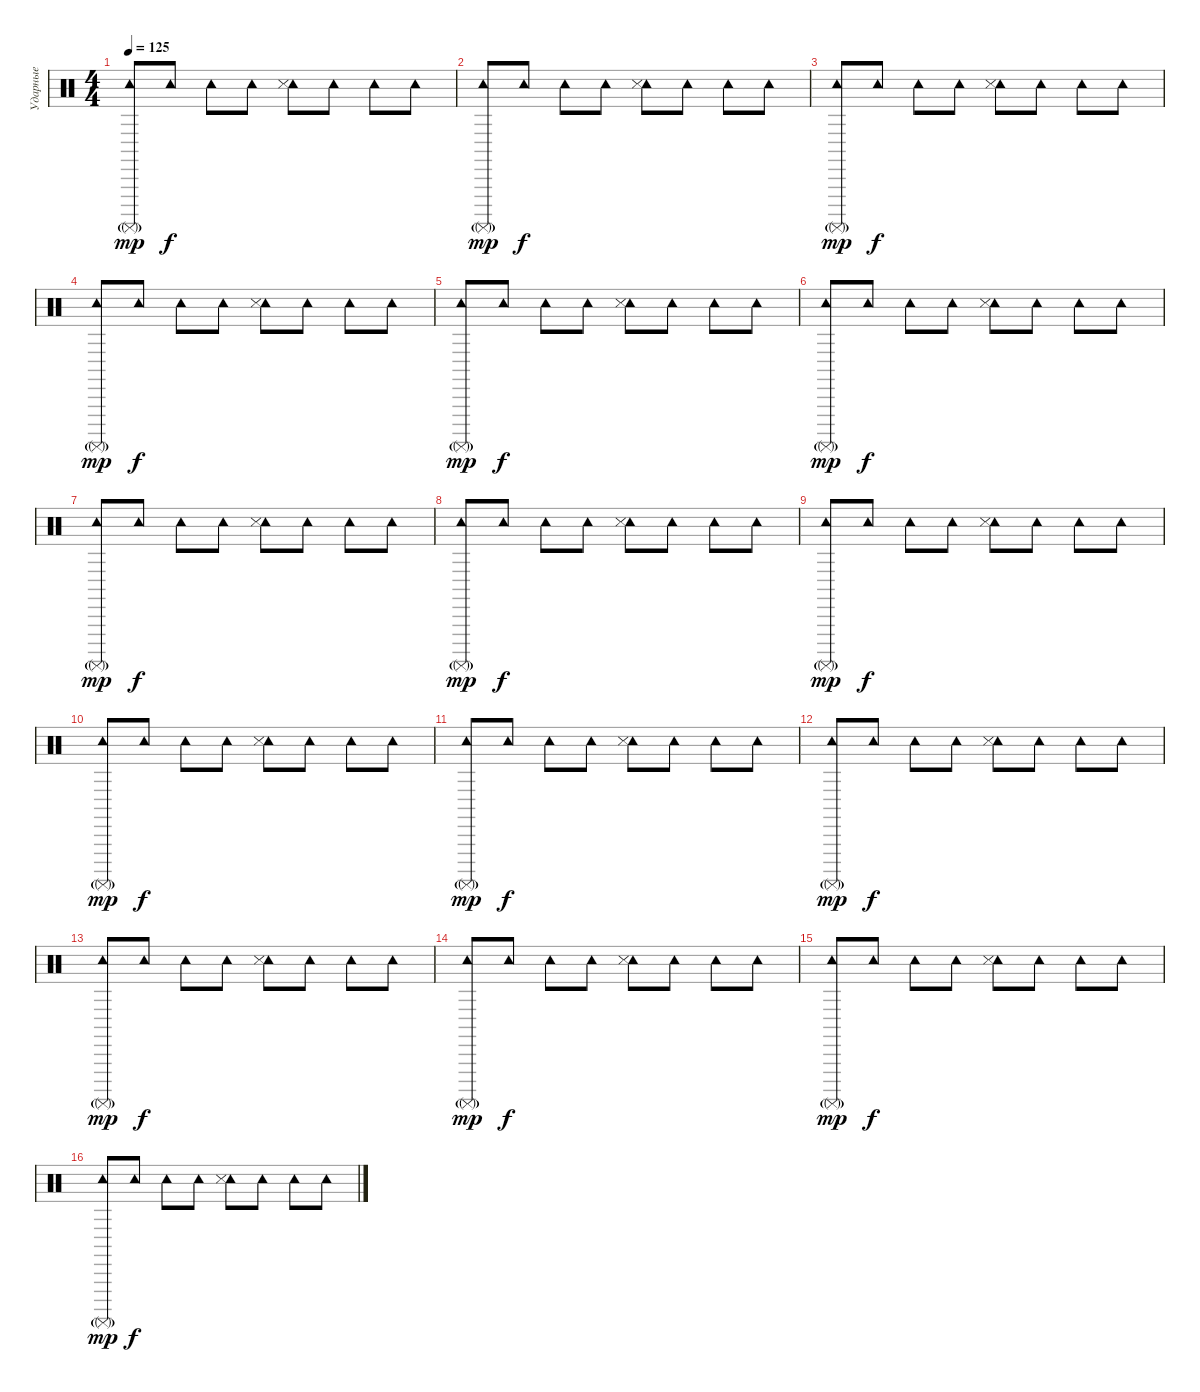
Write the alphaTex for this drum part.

\track ("Ударные" "Ударные") {instrument percussion}
\staff {score}
\articulation defaults
\ts (4 4)
\tempo 125
\clef neutral
\ks c
("Tambourine (hit)" "Surdo (mute)"{g}).8{dy mp} "Tambourine (hit)".8{dy f} "Tambourine (hit)".8 "Tambourine (hit)".8 ("Tambourine (hit)" "Snare (side stick) 3").8 "Tambourine (hit)".8 "Tambourine (hit)".8 "Tambourine (hit)".8 |
("Tambourine (hit)" "Surdo (mute)"{g}).8{dy mp} "Tambourine (hit)".8{dy f} "Tambourine (hit)".8 "Tambourine (hit)".8 ("Tambourine (hit)" "Snare (side stick) 3").8 "Tambourine (hit)".8 "Tambourine (hit)".8 "Tambourine (hit)".8 |
("Tambourine (hit)" "Surdo (mute)"{g}).8{dy mp} "Tambourine (hit)".8{dy f} "Tambourine (hit)".8 "Tambourine (hit)".8 ("Tambourine (hit)" "Snare (side stick) 3").8 "Tambourine (hit)".8 "Tambourine (hit)".8 "Tambourine (hit)".8 |
("Tambourine (hit)" "Surdo (mute)"{g}).8{dy mp} "Tambourine (hit)".8{dy f} "Tambourine (hit)".8 "Tambourine (hit)".8 ("Tambourine (hit)" "Snare (side stick) 3").8 "Tambourine (hit)".8 "Tambourine (hit)".8 "Tambourine (hit)".8 |
("Tambourine (hit)" "Surdo (mute)"{g}).8{dy mp} "Tambourine (hit)".8{dy f} "Tambourine (hit)".8 "Tambourine (hit)".8 ("Tambourine (hit)" "Snare (side stick) 3").8 "Tambourine (hit)".8 "Tambourine (hit)".8 "Tambourine (hit)".8 |
("Tambourine (hit)" "Surdo (mute)"{g}).8{dy mp} "Tambourine (hit)".8{dy f} "Tambourine (hit)".8 "Tambourine (hit)".8 ("Tambourine (hit)" "Snare (side stick) 3").8 "Tambourine (hit)".8 "Tambourine (hit)".8 "Tambourine (hit)".8 |
("Tambourine (hit)" "Surdo (mute)"{g}).8{dy mp} "Tambourine (hit)".8{dy f} "Tambourine (hit)".8 "Tambourine (hit)".8 ("Tambourine (hit)" "Snare (side stick) 3").8 "Tambourine (hit)".8 "Tambourine (hit)".8 "Tambourine (hit)".8 |
("Tambourine (hit)" "Surdo (mute)"{g}).8{dy mp} "Tambourine (hit)".8{dy f} "Tambourine (hit)".8 "Tambourine (hit)".8 ("Tambourine (hit)" "Snare (side stick) 3").8 "Tambourine (hit)".8 "Tambourine (hit)".8 "Tambourine (hit)".8 |
("Tambourine (hit)" "Surdo (mute)"{g}).8{dy mp} "Tambourine (hit)".8{dy f} "Tambourine (hit)".8 "Tambourine (hit)".8 ("Tambourine (hit)" "Snare (side stick) 3").8 "Tambourine (hit)".8 "Tambourine (hit)".8 "Tambourine (hit)".8 |
("Tambourine (hit)" "Surdo (mute)"{g}).8{dy mp} "Tambourine (hit)".8{dy f} "Tambourine (hit)".8 "Tambourine (hit)".8 ("Tambourine (hit)" "Snare (side stick) 3").8 "Tambourine (hit)".8 "Tambourine (hit)".8 "Tambourine (hit)".8 |
("Tambourine (hit)" "Surdo (mute)"{g}).8{dy mp} "Tambourine (hit)".8{dy f} "Tambourine (hit)".8 "Tambourine (hit)".8 ("Tambourine (hit)" "Snare (side stick) 3").8 "Tambourine (hit)".8 "Tambourine (hit)".8 "Tambourine (hit)".8 |
("Tambourine (hit)" "Surdo (mute)"{g}).8{dy mp} "Tambourine (hit)".8{dy f} "Tambourine (hit)".8 "Tambourine (hit)".8 ("Tambourine (hit)" "Snare (side stick) 3").8 "Tambourine (hit)".8 "Tambourine (hit)".8 "Tambourine (hit)".8 |
("Tambourine (hit)" "Surdo (mute)"{g}).8{dy mp} "Tambourine (hit)".8{dy f} "Tambourine (hit)".8 "Tambourine (hit)".8 ("Tambourine (hit)" "Snare (side stick) 3").8 "Tambourine (hit)".8 "Tambourine (hit)".8 "Tambourine (hit)".8 |
("Tambourine (hit)" "Surdo (mute)"{g}).8{dy mp} "Tambourine (hit)".8{dy f} "Tambourine (hit)".8 "Tambourine (hit)".8 ("Tambourine (hit)" "Snare (side stick) 3").8 "Tambourine (hit)".8 "Tambourine (hit)".8 "Tambourine (hit)".8 |
("Tambourine (hit)" "Surdo (mute)"{g}).8{dy mp} "Tambourine (hit)".8{dy f} "Tambourine (hit)".8 "Tambourine (hit)".8 ("Tambourine (hit)" "Snare (side stick) 3").8 "Tambourine (hit)".8 "Tambourine (hit)".8 "Tambourine (hit)".8 |
("Tambourine (hit)" "Surdo (mute)"{g}).8{dy mp} "Tambourine (hit)".8{dy f} "Tambourine (hit)".8 "Tambourine (hit)".8 ("Tambourine (hit)" "Snare (side stick) 3").8 "Tambourine (hit)".8 "Tambourine (hit)".8 "Tambourine (hit)".8
